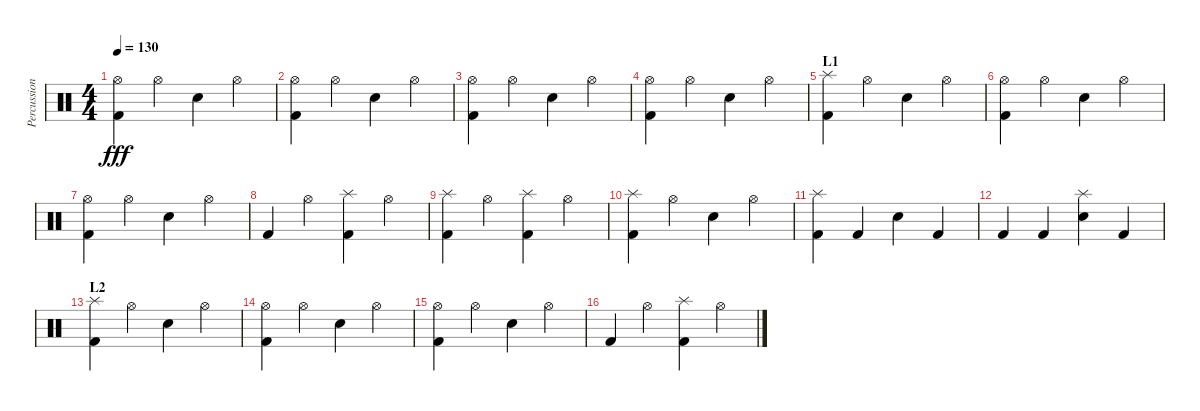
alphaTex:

\track ("Percussion" "Percussion") {instrument percussion}
\staff {score}
\articulation defaults
\ts (4 4)
\tempo 130
\clef neutral
\ks c
("Kick (hit) 2" "Hi-Hat (open)").4{dy fff} "Hi-Hat (open)".4 "Electric Snare (hit)".4 "Hi-Hat (open)".4 |
("Kick (hit) 2" "Hi-Hat (open)").4 "Hi-Hat (open)".4 "Electric Snare (hit)".4 "Hi-Hat (open)".4 |
("Kick (hit) 2" "Hi-Hat (open)").4 "Hi-Hat (open)".4 "Electric Snare (hit)".4 "Hi-Hat (open)".4 |
("Kick (hit) 2" "Hi-Hat (open)").4 "Hi-Hat (open)".4 "Electric Snare (hit)".4 "Hi-Hat (open)".4 |
\section ("" "L1")
("Kick (hit) 2" "Splash (hit)").4 "Hi-Hat (open)".4 "Electric Snare (hit)".4 "Hi-Hat (open)".4 |
("Kick (hit) 2" "Hi-Hat (open)").4 "Hi-Hat (open)".4 "Electric Snare (hit)".4 "Hi-Hat (open)".4 |
("Kick (hit) 2" "Hi-Hat (open)").4 "Hi-Hat (open)".4 "Electric Snare (hit)".4 "Hi-Hat (open)".4 |
"Kick (hit) 2".4 "Hi-Hat (open)".4 ("Splash (hit)" "Kick (hit) 2").4 "Hi-Hat (open)".4 |
("Kick (hit) 2" "Splash (hit)").4 "Hi-Hat (open)".4 ("Kick (hit) 2" "Splash (hit)").4 "Hi-Hat (open)".4 |
("Kick (hit) 2" "Splash (hit)").4 "Hi-Hat (open)".4 "Electric Snare (hit)".4 "Hi-Hat (open)".4 |
("Kick (hit) 2" "Splash (hit)").4 "Kick (hit) 2".4 "Electric Snare (hit)".4 "Kick (hit) 2".4 |
"Kick (hit) 2".4 "Kick (hit) 2".4 ("Splash (hit)" "Electric Snare (hit)").4 "Kick (hit) 2".4 |
\section ("" "L2")
("Kick (hit) 2" "Splash (hit)").4 "Hi-Hat (open)".4 "Electric Snare (hit)".4 "Hi-Hat (open)".4 |
("Kick (hit) 2" "Hi-Hat (open)").4 "Hi-Hat (open)".4 "Electric Snare (hit)".4 "Hi-Hat (open)".4 |
("Kick (hit) 2" "Hi-Hat (open)").4 "Hi-Hat (open)".4 "Electric Snare (hit)".4 "Hi-Hat (open)".4 |
"Kick (hit) 2".4 "Hi-Hat (open)".4 ("Splash (hit)" "Kick (hit) 2").4 "Hi-Hat (open)".4
